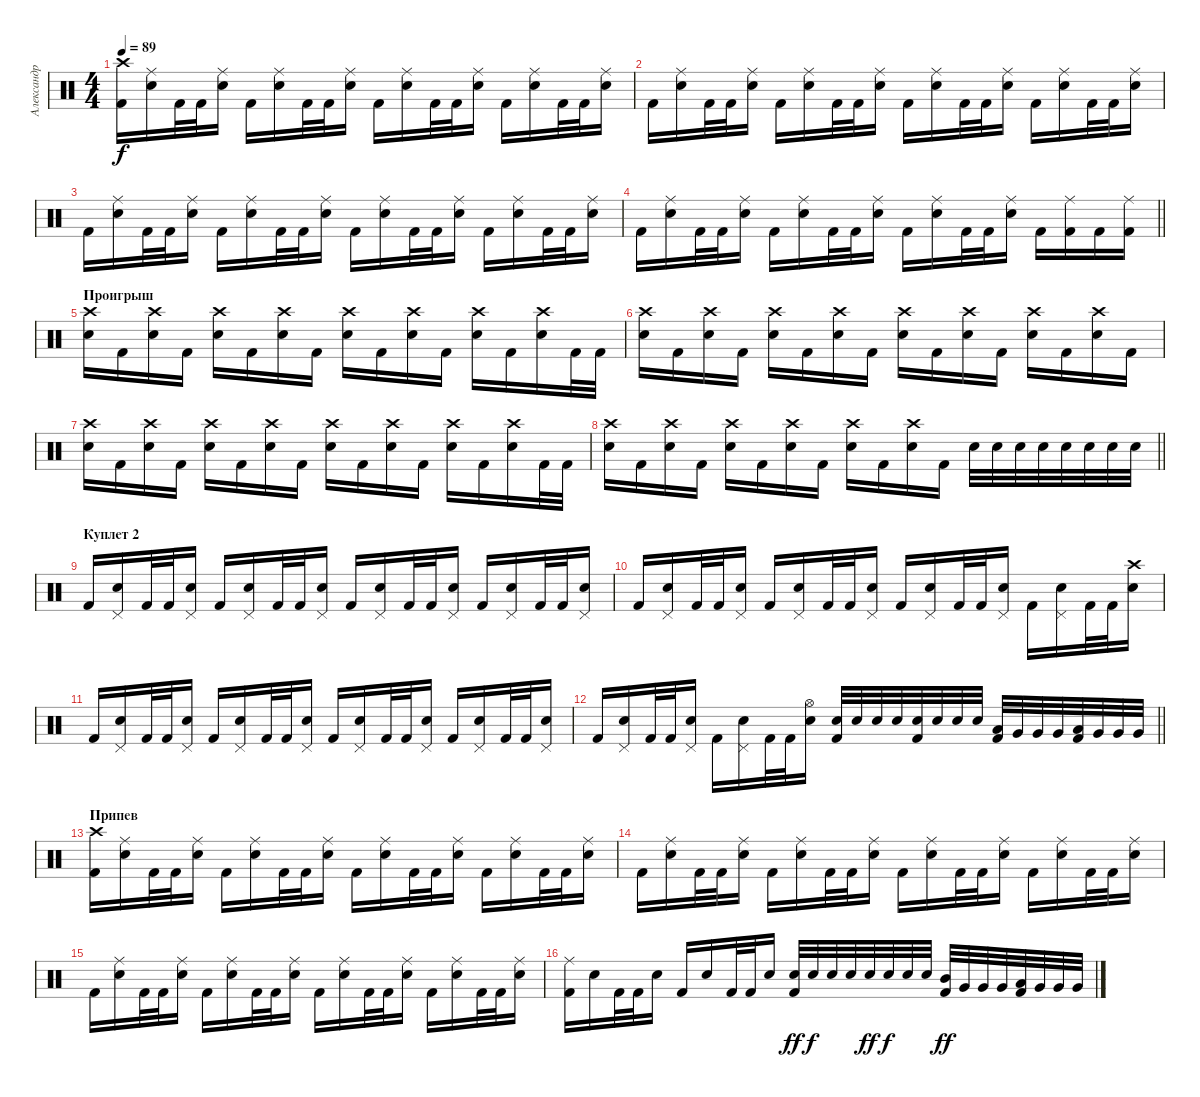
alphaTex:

\track ("Александр \"Поручик\" Щиголев" "Александр ") {instrument percussion}
\staff {score}
\articulation defaults
\ts (4 4)
\tempo 89
\clef neutral
\ks c
("Crash high (hit)" "Kick (hit) 2").16{dy f} ("Ride (middle)" "Electric Snare (hit)").16 "Kick (hit) 2".32 "Kick (hit) 2".32 ("Ride (middle)" "Electric Snare (hit)").16 "Kick (hit) 2".16 ("Ride (middle)" "Electric Snare (hit)").16 "Kick (hit) 2".32 "Kick (hit) 2".32 ("Ride (middle)" "Electric Snare (hit)").16 "Kick (hit) 2".16 ("Ride (middle)" "Electric Snare (hit)").16 "Kick (hit) 2".32 "Kick (hit) 2".32 ("Ride (middle)" "Electric Snare (hit)").16 "Kick (hit) 2".16 ("Ride (middle)" "Electric Snare (hit)").16 "Kick (hit) 2".32 "Kick (hit) 2".32 ("Ride (middle)" "Electric Snare (hit)").16 |
"Kick (hit) 2".16 ("Ride (middle)" "Electric Snare (hit)").16 "Kick (hit) 2".32 "Kick (hit) 2".32 ("Ride (middle)" "Electric Snare (hit)").16 "Kick (hit) 2".16 ("Ride (middle)" "Electric Snare (hit)").16 "Kick (hit) 2".32 "Kick (hit) 2".32 ("Ride (middle)" "Electric Snare (hit)").16 "Kick (hit) 2".16 ("Ride (middle)" "Electric Snare (hit)").16 "Kick (hit) 2".32 "Kick (hit) 2".32 ("Ride (middle)" "Electric Snare (hit)").16 "Kick (hit) 2".16 ("Ride (middle)" "Electric Snare (hit)").16 "Kick (hit) 2".32 "Kick (hit) 2".32 ("Ride (middle)" "Electric Snare (hit)").16 |
"Kick (hit) 2".16 ("Ride (middle)" "Electric Snare (hit)").16 "Kick (hit) 2".32 "Kick (hit) 2".32 ("Ride (middle)" "Electric Snare (hit)").16 "Kick (hit) 2".16 ("Ride (middle)" "Electric Snare (hit)").16 "Kick (hit) 2".32 "Kick (hit) 2".32 ("Ride (middle)" "Electric Snare (hit)").16 "Kick (hit) 2".16 ("Ride (middle)" "Electric Snare (hit)").16 "Kick (hit) 2".32 "Kick (hit) 2".32 ("Ride (middle)" "Electric Snare (hit)").16 "Kick (hit) 2".16 ("Ride (middle)" "Electric Snare (hit)").16 "Kick (hit) 2".32 "Kick (hit) 2".32 ("Ride (middle)" "Electric Snare (hit)").16 |
\barLineRight lightlight "Kick (hit) 2".16
("Ride (middle)" "Electric Snare (hit)").16 "Kick (hit) 2".32 "Kick (hit) 2".32 ("Ride (middle)" "Electric Snare (hit)").16 "Kick (hit) 2".16 ("Ride (middle)" "Electric Snare (hit)").16 "Kick (hit) 2".32 "Kick (hit) 2".32 ("Ride (middle)" "Electric Snare (hit)").16 "Kick (hit) 2".16 ("Ride (middle)" "Electric Snare (hit)").16 "Kick (hit) 2".32 "Kick (hit) 2".32 ("Ride (middle)" "Electric Snare (hit)").16 "Kick (hit) 2".16 ("Ride (middle)" "Kick (hit) 2").16 "Kick (hit) 2".16 ("Ride (middle)" "Kick (hit) 2").16 |
\section ("" "Проигрыш")
("Crash high (hit)" "Electric Snare (hit)").16 "Kick (hit) 2".16 ("Crash high (hit)" "Electric Snare (hit)").16 "Kick (hit) 2".16 ("Crash high (hit)" "Electric Snare (hit)").16 "Kick (hit) 2".16 ("Crash high (hit)" "Electric Snare (hit)").16 "Kick (hit) 2".16 ("Crash high (hit)" "Electric Snare (hit)").16 "Kick (hit) 2".16 ("Crash high (hit)" "Electric Snare (hit)").16 "Kick (hit) 2".16 ("Crash high (hit)" "Electric Snare (hit)").16 "Kick (hit) 2".16 ("Crash high (hit)" "Electric Snare (hit)").16 "Kick (hit) 2".32 "Kick (hit) 2".32 |
("Crash high (hit)" "Electric Snare (hit)").16 "Kick (hit) 2".16 ("Crash high (hit)" "Electric Snare (hit)").16 "Kick (hit) 2".16 ("Crash high (hit)" "Electric Snare (hit)").16 "Kick (hit) 2".16 ("Crash high (hit)" "Electric Snare (hit)").16 "Kick (hit) 2".16 ("Crash high (hit)" "Electric Snare (hit)").16 "Kick (hit) 2".16 ("Crash high (hit)" "Electric Snare (hit)").16 "Kick (hit) 2".16 ("Crash high (hit)" "Electric Snare (hit)").16 "Kick (hit) 2".16 ("Crash high (hit)" "Electric Snare (hit)").16 "Kick (hit) 2".16 |
("Crash high (hit)" "Electric Snare (hit)").16 "Kick (hit) 2".16 ("Crash high (hit)" "Electric Snare (hit)").16 "Kick (hit) 2".16 ("Crash high (hit)" "Electric Snare (hit)").16 "Kick (hit) 2".16 ("Crash high (hit)" "Electric Snare (hit)").16 "Kick (hit) 2".16 ("Crash high (hit)" "Electric Snare (hit)").16 "Kick (hit) 2".16 ("Crash high (hit)" "Electric Snare (hit)").16 "Kick (hit) 2".16 ("Crash high (hit)" "Electric Snare (hit)").16 "Kick (hit) 2".16 ("Crash high (hit)" "Electric Snare (hit)").16 "Kick (hit) 2".32 "Kick (hit) 2".32 |
\barLineRight lightlight
("Crash high (hit)" "Electric Snare (hit)").16 "Kick (hit) 2".16 ("Crash high (hit)" "Electric Snare (hit)").16 "Kick (hit) 2".16 ("Crash high (hit)" "Electric Snare (hit)").16 "Kick (hit) 2".16 ("Crash high (hit)" "Electric Snare (hit)").16 "Kick (hit) 2".16 ("Crash high (hit)" "Electric Snare (hit)").16 "Kick (hit) 2".16 ("Crash high (hit)" "Electric Snare (hit)").16 "Kick (hit) 2".16 "Electric Snare (hit)".32 "Electric Snare (hit)".32 "Electric Snare (hit)".32 "Electric Snare (hit)".32 "Electric Snare (hit)".32 "Electric Snare (hit)".32 "Electric Snare (hit)".32 "Electric Snare (hit)".32 |
\section ("" "Куплет 2")
"Kick (hit) 2".16 ("Pedal Hi-Hat (hit)" "Electric Snare (hit)").16 "Kick (hit) 2".32 "Kick (hit) 2".32 ("Pedal Hi-Hat (hit)" "Electric Snare (hit)").16 "Kick (hit) 2".16 ("Pedal Hi-Hat (hit)" "Electric Snare (hit)").16 "Kick (hit) 2".32 "Kick (hit) 2".32 ("Pedal Hi-Hat (hit)" "Electric Snare (hit)").16 "Kick (hit) 2".16 ("Pedal Hi-Hat (hit)" "Electric Snare (hit)").16 "Kick (hit) 2".32 "Kick (hit) 2".32 ("Pedal Hi-Hat (hit)" "Electric Snare (hit)").16 "Kick (hit) 2".16 ("Pedal Hi-Hat (hit)" "Electric Snare (hit)").16 "Kick (hit) 2".32 "Kick (hit) 2".32 ("Pedal Hi-Hat (hit)" "Electric Snare (hit)").16 |
"Kick (hit) 2".16 ("Pedal Hi-Hat (hit)" "Electric Snare (hit)").16 "Kick (hit) 2".32 "Kick (hit) 2".32 ("Pedal Hi-Hat (hit)" "Electric Snare (hit)").16 "Kick (hit) 2".16 ("Pedal Hi-Hat (hit)" "Electric Snare (hit)").16 "Kick (hit) 2".32 "Kick (hit) 2".32 ("Pedal Hi-Hat (hit)" "Electric Snare (hit)").16 "Kick (hit) 2".16 ("Pedal Hi-Hat (hit)" "Electric Snare (hit)").16 "Kick (hit) 2".32 "Kick (hit) 2".32 ("Pedal Hi-Hat (hit)" "Electric Snare (hit)").16 "Kick (hit) 2".16 ("Pedal Hi-Hat (hit)" "Electric Snare (hit)").16 "Kick (hit) 2".32 "Kick (hit) 2".32 ("Crash high (hit)" "Electric Snare (hit)").16 |
"Kick (hit) 2".16 ("Pedal Hi-Hat (hit)" "Electric Snare (hit)").16 "Kick (hit) 2".32 "Kick (hit) 2".32 ("Pedal Hi-Hat (hit)" "Electric Snare (hit)").16 "Kick (hit) 2".16 ("Pedal Hi-Hat (hit)" "Electric Snare (hit)").16 "Kick (hit) 2".32 "Kick (hit) 2".32 ("Pedal Hi-Hat (hit)" "Electric Snare (hit)").16 "Kick (hit) 2".16 ("Pedal Hi-Hat (hit)" "Electric Snare (hit)").16 "Kick (hit) 2".32 "Kick (hit) 2".32 ("Pedal Hi-Hat (hit)" "Electric Snare (hit)").16 "Kick (hit) 2".16 ("Pedal Hi-Hat (hit)" "Electric Snare (hit)").16 "Kick (hit) 2".32 "Kick (hit) 2".32 ("Pedal Hi-Hat (hit)" "Electric Snare (hit)").16 |
\barLineRight lightlight "Kick (hit) 2".16
("Pedal Hi-Hat (hit)" "Electric Snare (hit)").16 "Kick (hit) 2".32 "Kick (hit) 2".32 ("Pedal Hi-Hat (hit)" "Electric Snare (hit)").16 "Kick (hit) 2".16 ("Pedal Hi-Hat (hit)" "Electric Snare (hit)").16 "Kick (hit) 2".32 "Kick (hit) 2".32 ("Hi-Hat (open)" "Electric Snare (hit)").16 ("Electric Snare (hit)" "Kick (hit) 2").32 "Electric Snare (hit)".32 "Electric Snare (hit)".32 "Electric Snare (hit)".32 ("Electric Snare (hit)" "Kick (hit) 2").32 "Electric Snare (hit)".32 "Electric Snare (hit)".32 "Electric Snare (hit)".32 ("Low Tom (hit)" "Kick (hit) 2").32 "Very Low Tom (hit)".32 "Very Low Tom (hit)".32 "Very Low Tom (hit)".32 ("Low Tom (hit)" "Kick (hit) 2").32 "Very Low Tom (hit)".32 "Very Low Tom (hit)".32 "Very Low Tom (hit)".32 |
\section ("" "Припев")
("Crash high (hit)" "Kick (hit) 2").16 ("Ride (middle)" "Electric Snare (hit)").16 "Kick (hit) 2".32 "Kick (hit) 2".32 ("Ride (middle)" "Electric Snare (hit)").16 "Kick (hit) 2".16 ("Ride (middle)" "Electric Snare (hit)").16 "Kick (hit) 2".32 "Kick (hit) 2".32 ("Ride (middle)" "Electric Snare (hit)").16 "Kick (hit) 2".16 ("Ride (middle)" "Electric Snare (hit)").16 "Kick (hit) 2".32 "Kick (hit) 2".32 ("Ride (middle)" "Electric Snare (hit)").16 "Kick (hit) 2".16 ("Ride (middle)" "Electric Snare (hit)").16 "Kick (hit) 2".32 "Kick (hit) 2".32 ("Ride (middle)" "Electric Snare (hit)").16 |
"Kick (hit) 2".16 ("Ride (middle)" "Electric Snare (hit)").16 "Kick (hit) 2".32 "Kick (hit) 2".32 ("Ride (middle)" "Electric Snare (hit)").16 "Kick (hit) 2".16 ("Ride (middle)" "Electric Snare (hit)").16 "Kick (hit) 2".32 "Kick (hit) 2".32 ("Ride (middle)" "Electric Snare (hit)").16 "Kick (hit) 2".16 ("Ride (middle)" "Electric Snare (hit)").16 "Kick (hit) 2".32 "Kick (hit) 2".32 ("Ride (middle)" "Electric Snare (hit)").16 "Kick (hit) 2".16 ("Ride (middle)" "Electric Snare (hit)").16 "Kick (hit) 2".32 "Kick (hit) 2".32 ("Ride (middle)" "Electric Snare (hit)").16 |
"Kick (hit) 2".16 ("Ride (middle)" "Electric Snare (hit)").16 "Kick (hit) 2".32 "Kick (hit) 2".32 ("Ride (middle)" "Electric Snare (hit)").16 "Kick (hit) 2".16 ("Ride (middle)" "Electric Snare (hit)").16 "Kick (hit) 2".32 "Kick (hit) 2".32 ("Ride (middle)" "Electric Snare (hit)").16 "Kick (hit) 2".16 ("Ride (middle)" "Electric Snare (hit)").16 "Kick (hit) 2".32 "Kick (hit) 2".32 ("Ride (middle)" "Electric Snare (hit)").16 "Kick (hit) 2".16 ("Ride (middle)" "Electric Snare (hit)").16 "Kick (hit) 2".32 "Kick (hit) 2".32 ("Ride (middle)" "Electric Snare (hit)").16 |
("Ride (middle)" "Kick (hit) 2").16 "Electric Snare (hit)".16 "Kick (hit) 2".32 "Kick (hit) 2".32 "Electric Snare (hit)".16 "Kick (hit) 2".16 "Electric Snare (hit)".16 "Kick (hit) 2".32 "Kick (hit) 2".32 "Electric Snare (hit)".16 ("Electric Snare (hit)" "Kick (hit) 2").32{dy ff} "Electric Snare (hit)".32{dy f} "Electric Snare (hit)".32 "Electric Snare (hit)".32 "Electric Snare (hit)".32{dy ff} "Electric Snare (hit)".32{dy f} "Electric Snare (hit)".32 "Electric Snare (hit)".32 ("Mid Tom (hit)" "Kick (hit) 2").32{dy ff} "Very Low Tom (hit)".32 "Very Low Tom (hit)".32 "Very Low Tom (hit)".32 ("Low Tom (hit)" "Kick (hit) 2").32 "Very Low Tom (hit)".32 "Very Low Tom (hit)".32 "Very Low Tom (hit)".32
